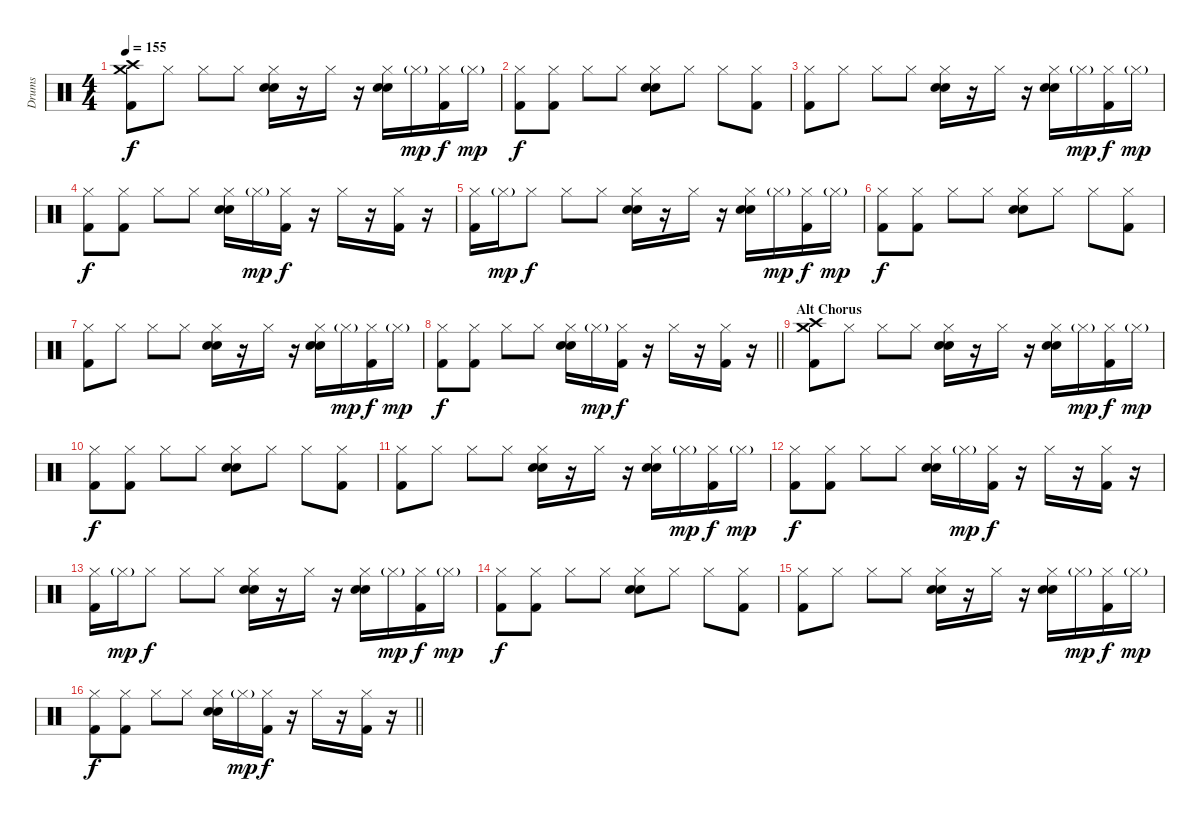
\track ("Drums" "Drums") {instrument percussion}
\staff {score}
\articulation defaults
\ts (4 4)
\section ("" "")
\tempo 155
\clef neutral
\ks c
("Crash high (hit)" "Crash medium (hit)" "Kick (hit) 2").8{dy f} "Hi-Hat (closed)".8 "Hi-Hat (closed)".8 "Hi-Hat (closed)".8 ("Hi-Hat (closed)" "Electric Snare (hit)" "Hand Clap (hit)").16 r.16 "Hi-Hat (closed)".16 r.16 ("Hi-Hat (closed)" "Electric Snare (hit)" "Hand Clap (hit)").16 "Hi-Hat (closed)"{g}.16{dy mp} ("Hi-Hat (closed)" "Kick (hit) 2").16{dy f} "Hi-Hat (closed)"{g}.16{dy mp} |
("Hi-Hat (closed)" "Kick (hit) 2").8{dy f} ("Hi-Hat (closed)" "Kick (hit) 2").8 "Hi-Hat (closed)".8 "Hi-Hat (closed)".8 ("Hi-Hat (closed)" "Electric Snare (hit)" "Hand Clap (hit)").8 "Hi-Hat (closed)".8 "Hi-Hat (closed)".8 ("Hi-Hat (closed)" "Kick (hit) 2").8 |
("Hi-Hat (closed)" "Kick (hit) 2").8 "Hi-Hat (closed)".8 "Hi-Hat (closed)".8 "Hi-Hat (closed)".8 ("Hi-Hat (closed)" "Electric Snare (hit)" "Hand Clap (hit)").16 r.16 "Hi-Hat (closed)".16 r.16 ("Hi-Hat (closed)" "Electric Snare (hit)" "Hand Clap (hit)").16 "Hi-Hat (closed)"{g}.16{dy mp} ("Hi-Hat (closed)" "Kick (hit) 2").16{dy f} "Hi-Hat (closed)"{g}.16{dy mp} |
("Hi-Hat (closed)" "Kick (hit) 2").8{dy f} ("Hi-Hat (closed)" "Kick (hit) 2").8 "Hi-Hat (closed)".8 "Hi-Hat (closed)".8 ("Hi-Hat (closed)" "Electric Snare (hit)" "Hand Clap (hit)").16 "Hi-Hat (closed)"{g}.16{dy mp} ("Hi-Hat (closed)" "Kick (hit) 2").16{dy f} r.16 "Hi-Hat (closed)".16 r.16 ("Hi-Hat (closed)" "Kick (hit) 2").16 r.16 |
("Hi-Hat (closed)" "Kick (hit) 2").16 "Hi-Hat (closed)"{g}.16{dy mp} "Hi-Hat (closed)".8{dy f} "Hi-Hat (closed)".8 "Hi-Hat (closed)".8 ("Hi-Hat (closed)" "Electric Snare (hit)" "Hand Clap (hit)").16 r.16 "Hi-Hat (closed)".16 r.16 ("Hi-Hat (closed)" "Electric Snare (hit)" "Hand Clap (hit)").16 "Hi-Hat (closed)"{g}.16{dy mp} ("Hi-Hat (closed)" "Kick (hit) 2").16{dy f} "Hi-Hat (closed)"{g}.16{dy mp} |
("Hi-Hat (closed)" "Kick (hit) 2").8{dy f} ("Hi-Hat (closed)" "Kick (hit) 2").8 "Hi-Hat (closed)".8 "Hi-Hat (closed)".8 ("Hi-Hat (closed)" "Electric Snare (hit)" "Hand Clap (hit)").8 "Hi-Hat (closed)".8 "Hi-Hat (closed)".8 ("Hi-Hat (closed)" "Kick (hit) 2").8 |
("Hi-Hat (closed)" "Kick (hit) 2").8 "Hi-Hat (closed)".8 "Hi-Hat (closed)".8 "Hi-Hat (closed)".8 ("Hi-Hat (closed)" "Electric Snare (hit)" "Hand Clap (hit)").16 r.16 "Hi-Hat (closed)".16 r.16 ("Hi-Hat (closed)" "Electric Snare (hit)" "Hand Clap (hit)").16 "Hi-Hat (closed)"{g}.16{dy mp} ("Hi-Hat (closed)" "Kick (hit) 2").16{dy f} "Hi-Hat (closed)"{g}.16{dy mp} |
\barLineRight lightlight
("Hi-Hat (closed)" "Kick (hit) 2").8{dy f} ("Hi-Hat (closed)" "Kick (hit) 2").8 "Hi-Hat (closed)".8 "Hi-Hat (closed)".8 ("Hi-Hat (closed)" "Electric Snare (hit)" "Hand Clap (hit)").16 "Hi-Hat (closed)"{g}.16{dy mp} ("Hi-Hat (closed)" "Kick (hit) 2").16{dy f} r.16 "Hi-Hat (closed)".16 r.16 ("Hi-Hat (closed)" "Kick (hit) 2").16 r.16 |
\section ("" "Alt Chorus")
("Crash high (hit)" "Crash medium (hit)" "Kick (hit) 2").8 "Hi-Hat (closed)".8 "Hi-Hat (closed)".8 "Hi-Hat (closed)".8 ("Hi-Hat (closed)" "Electric Snare (hit)" "Hand Clap (hit)").16 r.16 "Hi-Hat (closed)".16 r.16 ("Hi-Hat (closed)" "Electric Snare (hit)" "Hand Clap (hit)").16 "Hi-Hat (closed)"{g}.16{dy mp} ("Hi-Hat (closed)" "Kick (hit) 2").16{dy f} "Hi-Hat (closed)"{g}.16{dy mp} |
("Hi-Hat (closed)" "Kick (hit) 2").8{dy f} ("Hi-Hat (closed)" "Kick (hit) 2").8 "Hi-Hat (closed)".8 "Hi-Hat (closed)".8 ("Hi-Hat (closed)" "Electric Snare (hit)" "Hand Clap (hit)").8 "Hi-Hat (closed)".8 "Hi-Hat (closed)".8 ("Hi-Hat (closed)" "Kick (hit) 2").8 |
("Hi-Hat (closed)" "Kick (hit) 2").8 "Hi-Hat (closed)".8 "Hi-Hat (closed)".8 "Hi-Hat (closed)".8 ("Hi-Hat (closed)" "Electric Snare (hit)" "Hand Clap (hit)").16 r.16 "Hi-Hat (closed)".16 r.16 ("Hi-Hat (closed)" "Electric Snare (hit)" "Hand Clap (hit)").16 "Hi-Hat (closed)"{g}.16{dy mp} ("Hi-Hat (closed)" "Kick (hit) 2").16{dy f} "Hi-Hat (closed)"{g}.16{dy mp} |
("Hi-Hat (closed)" "Kick (hit) 2").8{dy f} ("Hi-Hat (closed)" "Kick (hit) 2").8 "Hi-Hat (closed)".8 "Hi-Hat (closed)".8 ("Hi-Hat (closed)" "Electric Snare (hit)" "Hand Clap (hit)").16 "Hi-Hat (closed)"{g}.16{dy mp} ("Hi-Hat (closed)" "Kick (hit) 2").16{dy f} r.16 "Hi-Hat (closed)".16 r.16 ("Hi-Hat (closed)" "Kick (hit) 2").16 r.16 |
("Hi-Hat (closed)" "Kick (hit) 2").16 "Hi-Hat (closed)"{g}.16{dy mp} "Hi-Hat (closed)".8{dy f} "Hi-Hat (closed)".8 "Hi-Hat (closed)".8 ("Hi-Hat (closed)" "Electric Snare (hit)" "Hand Clap (hit)").16 r.16 "Hi-Hat (closed)".16 r.16 ("Hi-Hat (closed)" "Electric Snare (hit)" "Hand Clap (hit)").16 "Hi-Hat (closed)"{g}.16{dy mp} ("Hi-Hat (closed)" "Kick (hit) 2").16{dy f} "Hi-Hat (closed)"{g}.16{dy mp} |
("Hi-Hat (closed)" "Kick (hit) 2").8{dy f} ("Hi-Hat (closed)" "Kick (hit) 2").8 "Hi-Hat (closed)".8 "Hi-Hat (closed)".8 ("Hi-Hat (closed)" "Electric Snare (hit)" "Hand Clap (hit)").8 "Hi-Hat (closed)".8 "Hi-Hat (closed)".8 ("Hi-Hat (closed)" "Kick (hit) 2").8 |
("Hi-Hat (closed)" "Kick (hit) 2").8 "Hi-Hat (closed)".8 "Hi-Hat (closed)".8 "Hi-Hat (closed)".8 ("Hi-Hat (closed)" "Electric Snare (hit)" "Hand Clap (hit)").16 r.16 "Hi-Hat (closed)".16 r.16 ("Hi-Hat (closed)" "Electric Snare (hit)" "Hand Clap (hit)").16 "Hi-Hat (closed)"{g}.16{dy mp} ("Hi-Hat (closed)" "Kick (hit) 2").16{dy f} "Hi-Hat (closed)"{g}.16{dy mp} |
\barLineRight lightlight
("Hi-Hat (closed)" "Kick (hit) 2").8{dy f} ("Hi-Hat (closed)" "Kick (hit) 2").8 "Hi-Hat (closed)".8 "Hi-Hat (closed)".8 ("Hi-Hat (closed)" "Electric Snare (hit)" "Hand Clap (hit)").16 "Hi-Hat (closed)"{g}.16{dy mp} ("Hi-Hat (closed)" "Kick (hit) 2").16{dy f} r.16 "Hi-Hat (closed)".16 r.16 ("Hi-Hat (closed)" "Kick (hit) 2").16 r.16
